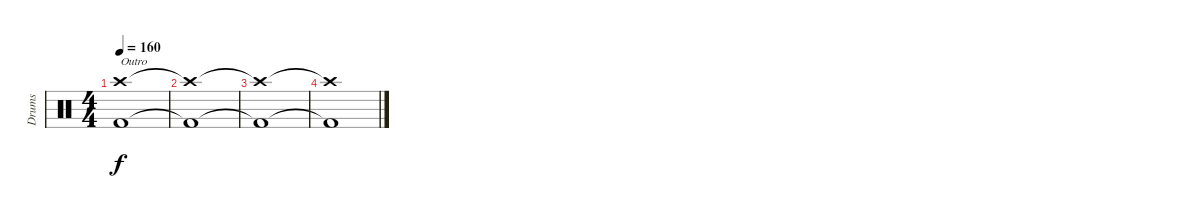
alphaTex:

\track ("Drums" "Drums") {instrument percussion}
\staff {score}
\articulation defaults
\ts (4 4)
\tempo 160
\clef neutral
\ks c
("Crash high (hit)" "Kick (hit) 2").1{txt "Outro" dy f} |
("Crash high (hit)"{t} "Kick (hit) 2"{t}).1 |
("Crash high (hit)"{t} "Kick (hit) 2"{t}).1 |
("Crash high (hit)"{t} "Kick (hit) 2"{t}).1
